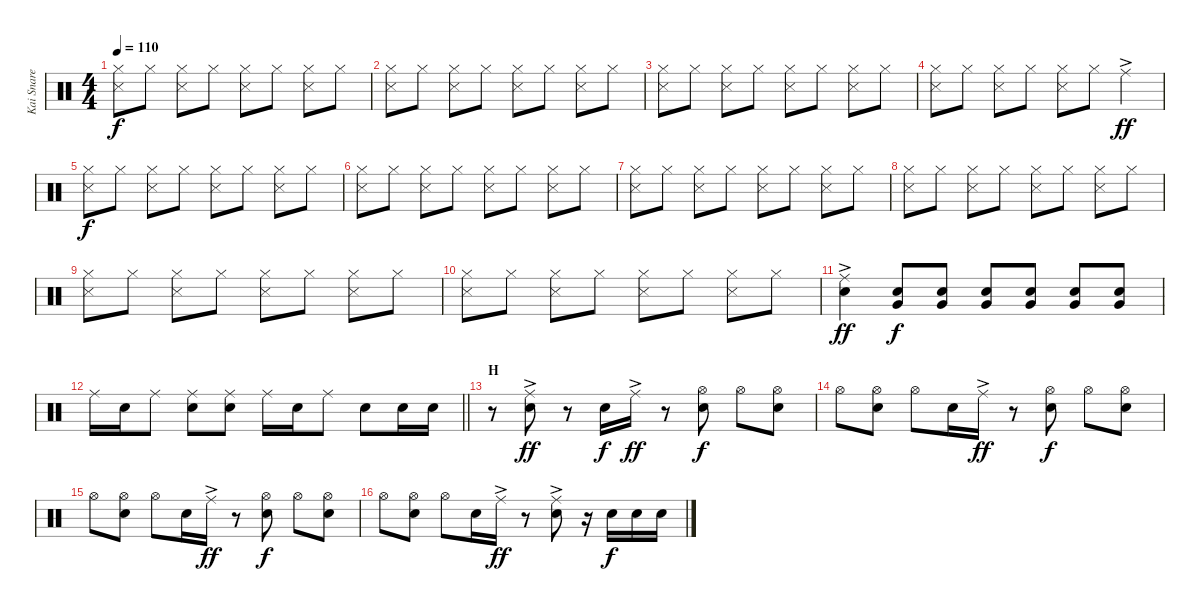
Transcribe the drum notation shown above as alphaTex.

\track ("Kai Snare" "Kai Snare") {instrument percussion}
\staff {score}
\articulation defaults
\ts (4 4)
\tempo 110
\clef neutral
\ks c
("Hi-Hat (closed)" "Snare (side stick) 3").8{dy f} "Hi-Hat (closed)".8 ("Hi-Hat (closed)" "Snare (side stick) 3").8 "Hi-Hat (closed)".8 ("Hi-Hat (closed)" "Snare (side stick) 3").8 "Hi-Hat (closed)".8 ("Hi-Hat (closed)" "Snare (side stick) 3").8 "Hi-Hat (closed)".8 |
("Hi-Hat (closed)" "Snare (side stick) 3").8 "Hi-Hat (closed)".8 ("Hi-Hat (closed)" "Snare (side stick) 3").8 "Hi-Hat (closed)".8 ("Hi-Hat (closed)" "Snare (side stick) 3").8 "Hi-Hat (closed)".8 ("Hi-Hat (closed)" "Snare (side stick) 3").8 "Hi-Hat (closed)".8 |
("Hi-Hat (closed)" "Snare (side stick) 3").8 "Hi-Hat (closed)".8 ("Hi-Hat (closed)" "Snare (side stick) 3").8 "Hi-Hat (closed)".8 ("Hi-Hat (closed)" "Snare (side stick) 3").8 "Hi-Hat (closed)".8 ("Hi-Hat (closed)" "Snare (side stick) 3").8 "Hi-Hat (closed)".8 |
("Hi-Hat (closed)" "Snare (side stick) 3").8 "Hi-Hat (closed)".8 ("Hi-Hat (closed)" "Snare (side stick) 3").8 "Hi-Hat (closed)".8 ("Hi-Hat (closed)" "Snare (side stick) 3").8 "Hi-Hat (closed)".8 "Ride (middle)"{ac}.4{dy ff} |
("Hi-Hat (closed)" "Snare (side stick) 3").8{dy f} "Hi-Hat (closed)".8 ("Hi-Hat (closed)" "Snare (side stick) 3").8 "Hi-Hat (closed)".8 ("Hi-Hat (closed)" "Snare (side stick) 3").8 "Hi-Hat (closed)".8 ("Hi-Hat (closed)" "Snare (side stick) 3").8 "Hi-Hat (closed)".8 |
("Hi-Hat (closed)" "Snare (side stick) 3").8 "Hi-Hat (closed)".8 ("Hi-Hat (closed)" "Snare (side stick) 3").8 "Hi-Hat (closed)".8 ("Hi-Hat (closed)" "Snare (side stick) 3").8 "Hi-Hat (closed)".8 ("Hi-Hat (closed)" "Snare (side stick) 3").8 "Hi-Hat (closed)".8 |
("Hi-Hat (closed)" "Snare (side stick) 3").8 "Hi-Hat (closed)".8 ("Hi-Hat (closed)" "Snare (side stick) 3").8 "Hi-Hat (closed)".8 ("Hi-Hat (closed)" "Snare (side stick) 3").8 "Hi-Hat (closed)".8 ("Hi-Hat (closed)" "Snare (side stick) 3").8 "Hi-Hat (closed)".8 |
("Hi-Hat (closed)" "Snare (side stick) 3").8 "Hi-Hat (closed)".8 ("Hi-Hat (closed)" "Snare (side stick) 3").8 "Hi-Hat (closed)".8 ("Hi-Hat (closed)" "Snare (side stick) 3").8 "Hi-Hat (closed)".8 ("Hi-Hat (closed)" "Snare (side stick) 3").8 "Hi-Hat (closed)".8 |
("Hi-Hat (closed)" "Snare (side stick) 3").8 "Hi-Hat (closed)".8 ("Hi-Hat (closed)" "Snare (side stick) 3").8 "Hi-Hat (closed)".8 ("Hi-Hat (closed)" "Snare (side stick) 3").8 "Hi-Hat (closed)".8 ("Hi-Hat (closed)" "Snare (side stick) 3").8 "Hi-Hat (closed)".8 |
("Hi-Hat (closed)" "Snare (side stick) 3").8 "Hi-Hat (closed)".8 ("Hi-Hat (closed)" "Snare (side stick) 3").8 "Hi-Hat (closed)".8 ("Hi-Hat (closed)" "Snare (side stick) 3").8 "Hi-Hat (closed)".8 ("Hi-Hat (closed)" "Snare (side stick) 3").8 "Hi-Hat (closed)".8 |
("Ride (middle)"{ac} "Snare (hit) 2").4{dy ff} ("Very Low Tom (hit)" "Snare (hit) 2").8{dy f} ("Very Low Tom (hit)" "Snare (hit) 2").8 ("Very Low Tom (hit)" "Snare (hit) 2").8 ("Very Low Tom (hit)" "Snare (hit) 2").8 ("Very Low Tom (hit)" "Snare (hit) 2").8 ("Very Low Tom (hit)" "Snare (hit) 2").8 |
\barLineRight lightlight "Ride (middle)".16 "Snare (hit) 2".16 "Ride (middle)".8
("Ride (middle)" "Snare (hit) 2").8 ("Ride (middle)" "Snare (hit) 2").8 "Ride (middle)".16 "Snare (hit) 2".16 "Ride (middle)".8 "Snare (hit) 2".8 "Snare (hit) 2".16 "Snare (hit) 2".16 |
\section ("" "H")
r.8 ("Ride (middle)"{ac} "Snare (hit) 2").8{dy ff} r.8 "Snare (hit) 2".16{dy f} "Ride (middle)"{ac}.16{dy ff} r.8 ("Hi-Hat (open)" "Snare (hit) 2").8{dy f} "Hi-Hat (open)".8 ("Hi-Hat (open)" "Snare (hit) 2").8 |
"Hi-Hat (open)".8 ("Hi-Hat (open)" "Snare (hit) 2").8 "Hi-Hat (open)".8 "Snare (hit) 2".16 "Ride (middle)"{ac}.16{dy ff} r.8 ("Hi-Hat (open)" "Snare (hit) 2").8{dy f} "Hi-Hat (open)".8 ("Hi-Hat (open)" "Snare (hit) 2").8 |
"Hi-Hat (open)".8 ("Hi-Hat (open)" "Snare (hit) 2").8 "Hi-Hat (open)".8 "Snare (hit) 2".16 "Ride (middle)"{ac}.16{dy ff} r.8 ("Hi-Hat (open)" "Snare (hit) 2").8{dy f} "Hi-Hat (open)".8 ("Hi-Hat (open)" "Snare (hit) 2").8 |
"Hi-Hat (open)".8 ("Hi-Hat (open)" "Snare (hit) 2").8 "Hi-Hat (open)".8 "Snare (hit) 2".16 "Ride (middle)"{ac}.16{dy ff} r.8 ("Ride (middle)"{ac} "Snare (hit) 2").8 r.16 "Snare (hit) 2".16{dy f} "Snare (hit) 2".16 "Snare (hit) 2".16
